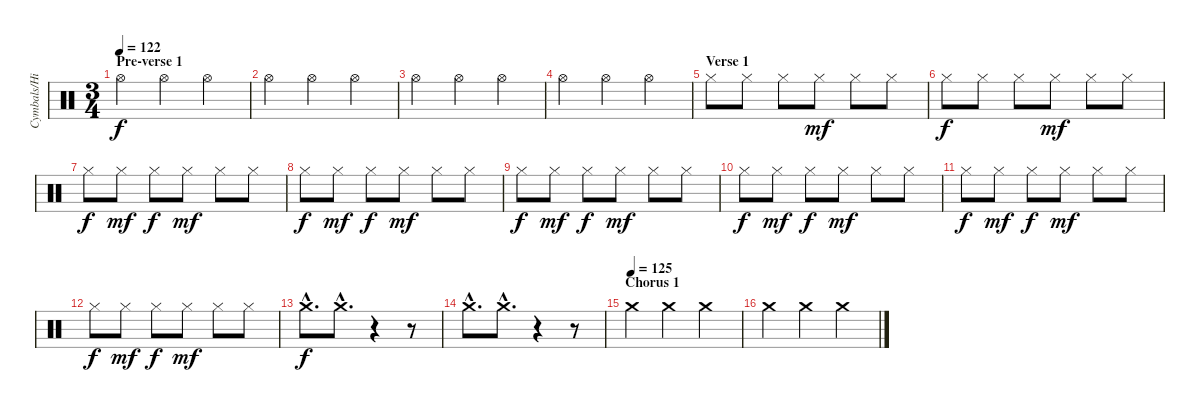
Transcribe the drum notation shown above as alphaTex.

\track ("Cymbals/Hi-hat" "Cymbals/Hi") {instrument percussion}
\staff {score}
\articulation defaults
\ts (3 4)
\section ("" "Pre-verse 1")
\tempo 122
\clef neutral
\ks c "Hi-Hat (open)".4{dy f} "Hi-Hat (open)".4 "Hi-Hat (open)".4
|
"Hi-Hat (open)".4 "Hi-Hat (open)".4 "Hi-Hat (open)".4 |
"Hi-Hat (open)".4 "Hi-Hat (open)".4 "Hi-Hat (open)".4 |
"Hi-Hat (open)".4 "Hi-Hat (open)".4 "Hi-Hat (open)".4 |
\section ("" "Verse 1")
"Hi-Hat (closed)".8 "Hi-Hat (closed)".8 "Hi-Hat (closed)".8 "Hi-Hat (closed)".8{dy mf} "Hi-Hat (closed)".8 "Hi-Hat (closed)".8 |
"Hi-Hat (closed)".8{dy f} "Hi-Hat (closed)".8 "Hi-Hat (closed)".8 "Hi-Hat (closed)".8{dy mf} "Hi-Hat (closed)".8 "Hi-Hat (closed)".8 |
"Hi-Hat (closed)".8{dy f} "Hi-Hat (closed)".8{dy mf} "Hi-Hat (closed)".8{dy f} "Hi-Hat (closed)".8{dy mf} "Hi-Hat (closed)".8 "Hi-Hat (closed)".8 |
"Hi-Hat (closed)".8{dy f} "Hi-Hat (closed)".8{dy mf} "Hi-Hat (closed)".8{dy f} "Hi-Hat (closed)".8{dy mf} "Hi-Hat (closed)".8 "Hi-Hat (closed)".8 |
"Hi-Hat (closed)".8{dy f} "Hi-Hat (closed)".8{dy mf} "Hi-Hat (closed)".8{dy f} "Hi-Hat (closed)".8{dy mf} "Hi-Hat (closed)".8 "Hi-Hat (closed)".8 |
"Hi-Hat (closed)".8{dy f} "Hi-Hat (closed)".8{dy mf} "Hi-Hat (closed)".8{dy f} "Hi-Hat (closed)".8{dy mf} "Hi-Hat (closed)".8 "Hi-Hat (closed)".8 |
"Hi-Hat (closed)".8{dy f} "Hi-Hat (closed)".8{dy mf} "Hi-Hat (closed)".8{dy f} "Hi-Hat (closed)".8{dy mf} "Hi-Hat (closed)".8 "Hi-Hat (closed)".8 |
"Hi-Hat (closed)".8{dy f} "Hi-Hat (closed)".8{dy mf} "Hi-Hat (closed)".8{dy f} "Hi-Hat (closed)".8{dy mf} "Hi-Hat (closed)".8 "Hi-Hat (closed)".8 |
"Crash medium (hit)"{hac}.8{d dy f} "Crash medium (hit)"{hac}.8{d} r.4 r.8 |
"Crash medium (hit)"{hac}.8{d} "Crash medium (hit)"{hac}.8{d} r.4 r.8 |
\section ("" "Chorus 1")
\tempo (125)
"Crash medium (hit)".4 "Crash medium (hit)".4 "Crash medium (hit)".4 |
"Crash medium (hit)".4 "Crash medium (hit)".4 "Crash medium (hit)".4
